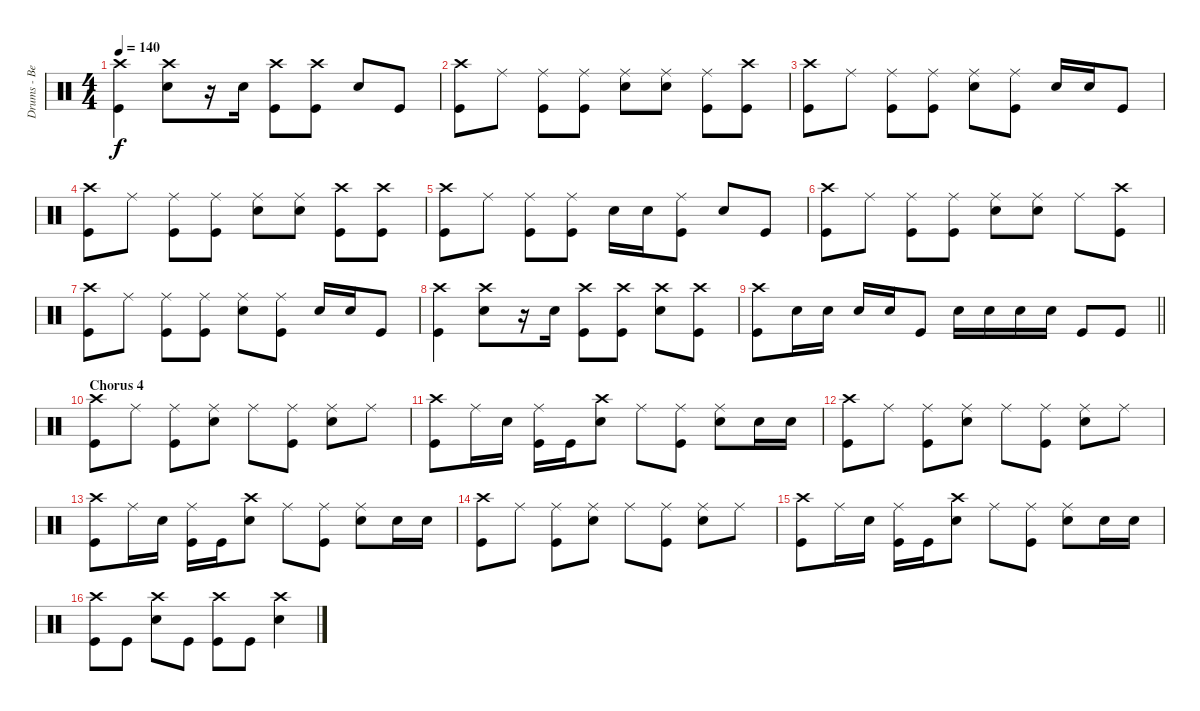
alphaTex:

\track ("Drums - Ben Johnston" "Drums - Be") {instrument percussion}
\staff {score}
\articulation defaults
\ts (4 4)
\tempo 140
\clef neutral
\ks c
("Crash high (hit)" "Kick (hit)").4{dy f} ("Crash high (hit)" "Snare (hit) 2").8 r.16 "Snare (hit) 2".16 ("Crash high (hit)" "Kick (hit)").8 ("Crash high (hit)" "Kick (hit)").8 "Snare (hit) 2".8 "Kick (hit)".8 |
("Crash high (hit)" "Kick (hit)").8 "Ride (middle)".8 ("Ride (middle)" "Kick (hit)").8 ("Ride (middle)" "Kick (hit)").8 ("Ride (middle)" "Snare (hit) 2").8 ("Ride (middle)" "Snare (hit) 2").8 ("Ride (middle)" "Kick (hit)").8 ("Crash high (hit)" "Kick (hit)").8 |
("Crash high (hit)" "Kick (hit)").8 "Ride (middle)".8 ("Ride (middle)" "Kick (hit)").8 ("Ride (middle)" "Kick (hit)").8 ("Ride (middle)" "Snare (hit) 2").8 ("Ride (middle)" "Kick (hit)").8 "Snare (hit) 2".16 "Snare (hit) 2".16 "Kick (hit)".8 |
("Crash high (hit)" "Kick (hit)").8 "Ride (middle)".8 ("Ride (middle)" "Kick (hit)").8 ("Ride (middle)" "Kick (hit)").8 ("Ride (middle)" "Snare (hit) 2").8 ("Ride (middle)" "Snare (hit) 2").8 ("Crash high (hit)" "Kick (hit)").8 ("Crash high (hit)" "Kick (hit)").8 |
("Crash high (hit)" "Kick (hit)").8 "Ride (middle)".8 ("Ride (middle)" "Kick (hit)").8 ("Ride (middle)" "Kick (hit)").8 "Snare (hit) 2".16 "Snare (hit) 2".16 ("Ride (middle)" "Kick (hit)").8 "Snare (hit) 2".8 "Kick (hit)".8 |
("Crash high (hit)" "Kick (hit)").8 "Ride (middle)".8 ("Ride (middle)" "Kick (hit)").8 ("Ride (middle)" "Kick (hit)").8 ("Ride (middle)" "Snare (hit) 2").8 ("Ride (middle)" "Snare (hit) 2").8 "Ride (middle)".8 ("Crash high (hit)" "Kick (hit)").8 |
("Crash high (hit)" "Kick (hit)").8 "Ride (middle)".8 ("Ride (middle)" "Kick (hit)").8 ("Ride (middle)" "Kick (hit)").8 ("Ride (middle)" "Snare (hit) 2").8 ("Ride (middle)" "Kick (hit)").8 "Snare (hit) 2".16 "Snare (hit) 2".16 "Kick (hit)".8 |
("Crash high (hit)" "Kick (hit)").4 ("Crash high (hit)" "Snare (hit) 2").8 r.16 "Snare (hit) 2".16 ("Crash high (hit)" "Kick (hit)").8 ("Crash high (hit)" "Kick (hit)").8 ("Crash high (hit)" "Snare (hit) 2").8 ("Crash high (hit)" "Kick (hit)").8 |
\barLineRight lightlight
("Crash high (hit)" "Kick (hit)").8 "Snare (hit) 2".16 "Snare (hit) 2".16 "Snare (hit) 2".16 "Snare (hit) 2".16 "Kick (hit)".8 "Snare (hit) 2".16 "Snare (hit) 2".16 "Snare (hit) 2".16 "Snare (hit) 2".16 "Kick (hit)".8 "Kick (hit)".8 |
\section ("" "Chorus 4")
("Crash high (hit)" "Kick (hit)").8 "Ride (middle)".8 ("Ride (middle)" "Kick (hit)").8 ("Ride (middle)" "Snare (hit) 2").8 "Ride (middle)".8 ("Ride (middle)" "Kick (hit)").8 ("Ride (middle)" "Snare (hit) 2").8 "Ride (middle)".8 |
("Crash high (hit)" "Kick (hit)").8 "Ride (middle)".16 "Snare (hit) 2".16 ("Ride (middle)" "Kick (hit)").16 "Kick (hit)".16 ("Crash high (hit)" "Snare (hit) 2").8 "Ride (middle)".8 ("Ride (middle)" "Kick (hit)").8 ("Ride (middle)" "Snare (hit) 2").8 "Snare (hit) 2".16 "Snare (hit) 2".16 |
("Crash high (hit)" "Kick (hit)").8 "Ride (middle)".8 ("Ride (middle)" "Kick (hit)").8 ("Ride (middle)" "Snare (hit) 2").8 "Ride (middle)".8 ("Ride (middle)" "Kick (hit)").8 ("Ride (middle)" "Snare (hit) 2").8 "Ride (middle)".8 |
("Crash high (hit)" "Kick (hit)").8 "Ride (middle)".16 "Snare (hit) 2".16 ("Ride (middle)" "Kick (hit)").16 "Kick (hit)".16 ("Crash high (hit)" "Snare (hit) 2").8 "Ride (middle)".8 ("Ride (middle)" "Kick (hit)").8 ("Ride (middle)" "Snare (hit) 2").8 "Snare (hit) 2".16 "Snare (hit) 2".16 |
("Crash high (hit)" "Kick (hit)").8 "Ride (middle)".8 ("Ride (middle)" "Kick (hit)").8 ("Ride (middle)" "Snare (hit) 2").8 "Ride (middle)".8 ("Ride (middle)" "Kick (hit)").8 ("Ride (middle)" "Snare (hit) 2").8 "Ride (middle)".8 |
("Crash high (hit)" "Kick (hit)").8 "Ride (middle)".16 "Snare (hit) 2".16 ("Ride (middle)" "Kick (hit)").16 "Kick (hit)".16 ("Crash high (hit)" "Snare (hit) 2").8 "Ride (middle)".8 ("Ride (middle)" "Kick (hit)").8 ("Ride (middle)" "Snare (hit) 2").8 "Snare (hit) 2".16 "Snare (hit) 2".16 |
("Crash high (hit)" "Kick (hit)").8 "Kick (hit)".8 ("Crash high (hit)" "Snare (hit) 2").8 "Kick (hit)".8 ("Crash high (hit)" "Kick (hit)").8 "Kick (hit)".8 ("Crash high (hit)" "Snare (hit) 2").4
